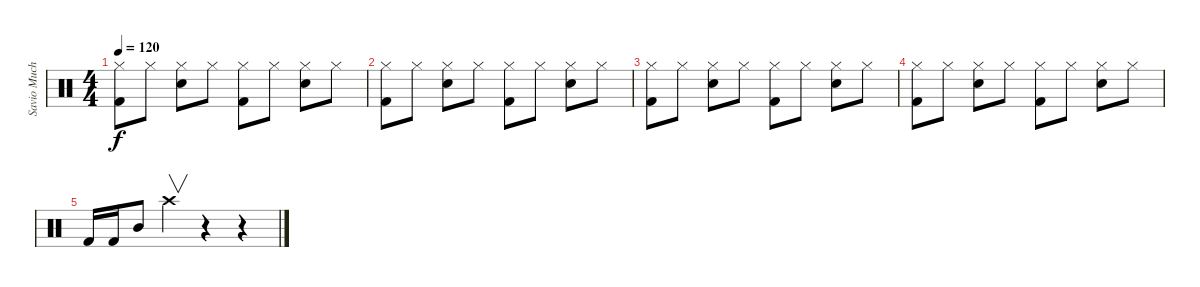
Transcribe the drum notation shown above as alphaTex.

\track ("Savio Muchacho (Drums)" "Savio Much") {instrument percussion}
\staff {score}
\articulation defaults
\ts (4 4)
\tempo 120
\clef neutral
\ks c
("Hi-Hat (closed)" "Kick (hit) 2").8{dy f} "Hi-Hat (closed)".8 ("Hi-Hat (closed)" "Electric Snare (hit)").8 "Hi-Hat (closed)".8 ("Hi-Hat (closed)" "Kick (hit) 2").8 "Hi-Hat (closed)".8 ("Hi-Hat (closed)" "Electric Snare (hit)").8 "Hi-Hat (closed)".8 |
("Hi-Hat (closed)" "Kick (hit) 2").8 "Hi-Hat (closed)".8 ("Hi-Hat (closed)" "Electric Snare (hit)").8 "Hi-Hat (closed)".8 ("Hi-Hat (closed)" "Kick (hit) 2").8 "Hi-Hat (closed)".8 ("Hi-Hat (closed)" "Electric Snare (hit)").8 "Hi-Hat (closed)".8 |
("Hi-Hat (closed)" "Kick (hit) 2").8 "Hi-Hat (closed)".8 ("Hi-Hat (closed)" "Electric Snare (hit)").8 "Hi-Hat (closed)".8 ("Hi-Hat (closed)" "Kick (hit) 2").8 "Hi-Hat (closed)".8 ("Hi-Hat (closed)" "Electric Snare (hit)").8 "Hi-Hat (closed)".8 |
("Hi-Hat (closed)" "Kick (hit) 2").8 "Hi-Hat (closed)".8 ("Hi-Hat (closed)" "Electric Snare (hit)").8 "Hi-Hat (closed)".8 ("Hi-Hat (closed)" "Kick (hit) 2").8 "Hi-Hat (closed)".8 ("Hi-Hat (closed)" "Electric Snare (hit)").8 "Hi-Hat (closed)".8 |
"Kick (hit) 2".16 "Kick (hit) 2".16 "Mid Tom (hit)".8 "Crash high (hit)".4{v} r.4 r.4
